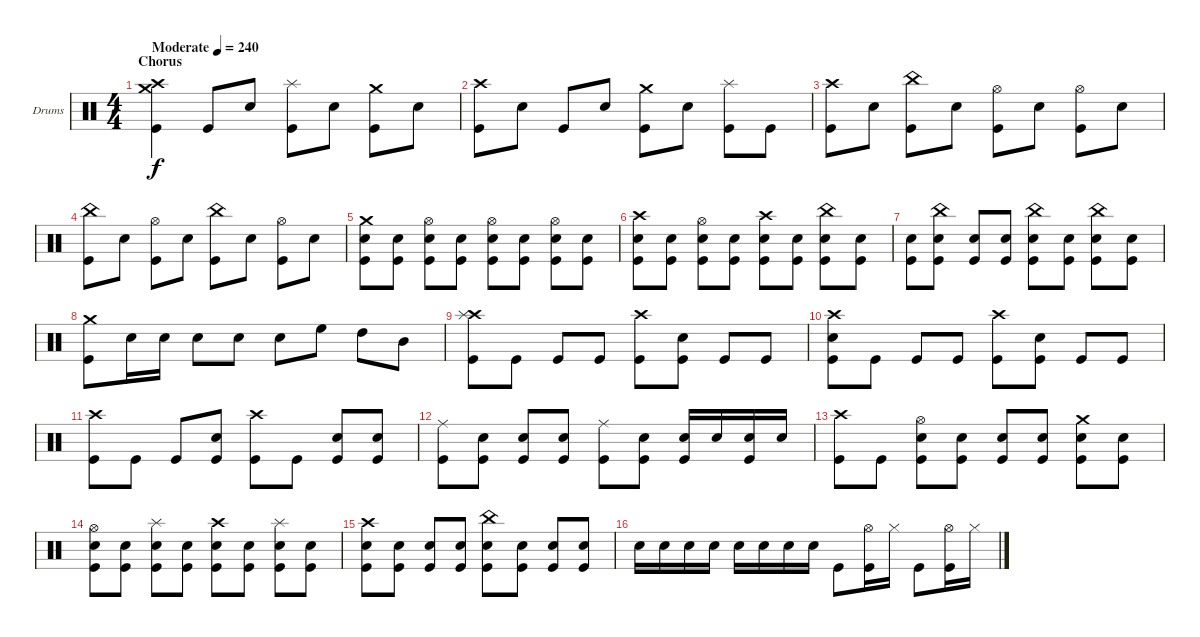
\bracketExtendMode groupsimilarinstruments
\firstSystemTrackNameOrientation horizontal
\otherSystemsTrackNameOrientation horizontal
\track ("Drumkit" "Drums") {instrument percussion}
\staff {score}
\articulation defaults
\ts (4 4)
\beaming (8 2 2 2 2)
\section ("" "Chorus")
\tempo (240 "Moderate")
\clef neutral
\ks c
("Crash medium (hit)" "Crash high (hit)" "Kick (hit)").4{dy f} "Kick (hit)".8 "Snare (hit) 2".8 ("Splash (hit)" "Kick (hit)").8 "Snare (hit) 2".8 ("Crash medium (hit)" "Kick (hit)").8 "Snare (hit) 2".8 |
("Crash high (hit)" "Kick (hit)").8 "Snare (hit) 2".8 "Kick (hit)".8 "Snare (hit) 2".8 ("Crash medium (hit)" "Kick (hit)").8 "Snare (hit) 2".8 ("Splash (hit)" "Kick (hit)").8 "Kick (hit)".8 |
("Crash high (hit)" "Kick (hit)").8 "Snare (hit) 2".8 ("China (hit)" "Kick (hit)").8 "Snare (hit) 2".8 ("Hi-Hat (open)" "Kick (hit)").8 "Snare (hit) 2".8 ("Hi-Hat (open)" "Kick (hit)").8 "Snare (hit) 2".8 |
("China (hit)" "Kick (hit)").8 "Snare (hit) 2".8 ("Hi-Hat (open)" "Kick (hit)").8 "Snare (hit) 2".8 ("China (hit)" "Kick (hit)").8 "Snare (hit) 2".8 ("Hi-Hat (open)" "Kick (hit)").8 "Snare (hit) 2".8 |
("Crash medium (hit)" "Snare (hit) 2" "Kick (hit)").8 ("Snare (hit) 2" "Kick (hit)").8 ("Hi-Hat (open)" "Snare (hit) 2" "Kick (hit)").8 ("Snare (hit) 2" "Kick (hit)").8 ("Hi-Hat (open)" "Snare (hit) 2" "Kick (hit)").8 ("Snare (hit) 2" "Kick (hit)").8 ("Hi-Hat (open)" "Snare (hit) 2" "Kick (hit)").8 ("Snare (hit) 2" "Kick (hit)").8 |
("Crash high (hit)" "Snare (hit) 2" "Kick (hit)").8 ("Snare (hit) 2" "Kick (hit)").8 ("Hi-Hat (open)" "Snare (hit) 2" "Kick (hit)").8 ("Snare (hit) 2" "Kick (hit)").8 ("Crash high (hit)" "Snare (hit) 2" "Kick (hit)").8 ("Snare (hit) 2" "Kick (hit)").8 ("China (hit)" "Snare (hit) 2" "Kick (hit)").8 ("Snare (hit) 2" "Kick (hit)").8 |
("Snare (hit) 2" "Kick (hit)").8 ("China (hit)" "Snare (hit) 2" "Kick (hit)").8 ("Snare (hit) 2" "Kick (hit)").8 ("Snare (hit) 2" "Kick (hit)").8 ("China (hit)" "Snare (hit) 2" "Kick (hit)").8 ("Snare (hit) 2" "Kick (hit)").8 ("China (hit)" "Snare (hit) 2" "Kick (hit)").8 ("Snare (hit) 2" "Kick (hit)").8 |
("Crash medium (hit)" "Kick (hit)").8 "Snare (hit) 2".16 "Snare (hit) 2".16 "Snare (hit) 2".8 "Snare (hit) 2".8 "Snare (hit) 2".8 "High Floor Tom (hit)".8 "High Tom (hit)".8 "Mid Tom (hit)".8 |
("Crash high (hit)" "Splash (hit)" "Kick (hit)").8 "Kick (hit)".8 "Kick (hit)".8 "Kick (hit)".8 ("Crash high (hit)" "Kick (hit)").8 ("Snare (hit) 2" "Kick (hit)").8 "Kick (hit)".8 "Kick (hit)".8 |
("Crash high (hit)" "Snare (hit) 2" "Kick (hit)").8 "Kick (hit)".8 "Kick (hit)".8 "Kick (hit)".8 ("Crash high (hit)" "Kick (hit)").8 ("Snare (hit) 2" "Kick (hit)").8 "Kick (hit)".8 "Kick (hit)".8 |
("Crash high (hit)" "Kick (hit)").8 "Kick (hit)".8 "Kick (hit)".8 ("Snare (hit) 2" "Kick (hit)").8 ("Crash high (hit)" "Kick (hit)").8 "Kick (hit)".8 ("Snare (hit) 2" "Kick (hit)").8 ("Snare (hit) 2" "Kick (hit)").8 |
("Ride (middle)" "Kick (hit)").8 ("Snare (hit) 2" "Kick (hit)").8 ("Snare (hit) 2" "Kick (hit)").8 ("Snare (hit) 2" "Kick (hit)").8 ("Ride (middle)" "Kick (hit)").8 ("Snare (hit) 2" "Kick (hit)").8 ("Snare (hit) 2" "Kick (hit)").16 "Snare (hit) 2".16 ("Snare (hit) 2" "Kick (hit)").16 "Snare (hit) 2".16 |
("Crash high (hit)" "Kick (hit)").8 "Kick (hit)".8 ("Hi-Hat (open)" "Snare (hit) 2" "Kick (hit)").8 ("Snare (hit) 2" "Kick (hit)").8 ("Snare (hit) 2" "Kick (hit)").8 ("Snare (hit) 2" "Kick (hit)").8 ("Crash medium (hit)" "Snare (hit) 2" "Kick (hit)").8 ("Snare (hit) 2" "Kick (hit)").8 |
("Hi-Hat (open)" "Snare (hit) 2" "Kick (hit)").8 ("Snare (hit) 2" "Kick (hit)").8 ("Splash (hit)" "Snare (hit) 2" "Kick (hit)").8 ("Snare (hit) 2" "Kick (hit)").8 ("Crash high (hit)" "Snare (hit) 2" "Kick (hit)").8 ("Snare (hit) 2" "Kick (hit)").8 ("Splash (hit)" "Snare (hit) 2" "Kick (hit)").8 ("Snare (hit) 2" "Kick (hit)").8 |
("Crash high (hit)" "Snare (hit) 2" "Kick (hit)").8 ("Snare (hit) 2" "Kick (hit)").8 ("Snare (hit) 2" "Kick (hit)").8 ("Snare (hit) 2" "Kick (hit)").8 ("China (hit)" "Snare (hit) 2" "Kick (hit)").8 ("Snare (hit) 2" "Kick (hit)").8 ("Snare (hit) 2" "Kick (hit)").8 ("Snare (hit) 2" "Kick (hit)").8 |
"Snare (hit) 2".16 "Snare (hit) 2".16 "Snare (hit) 2".16 "Snare (hit) 2".16 "Snare (hit) 2".16 "Snare (hit) 2".16 "Snare (hit) 2".16 "Snare (hit) 2".16 "Kick (hit)".8 ("Hi-Hat (open)" "Kick (hit)").16 "Hi-Hat (closed)".16 "Kick (hit)".8 ("Hi-Hat (open)" "Kick (hit)").16 "Hi-Hat (closed)".16
